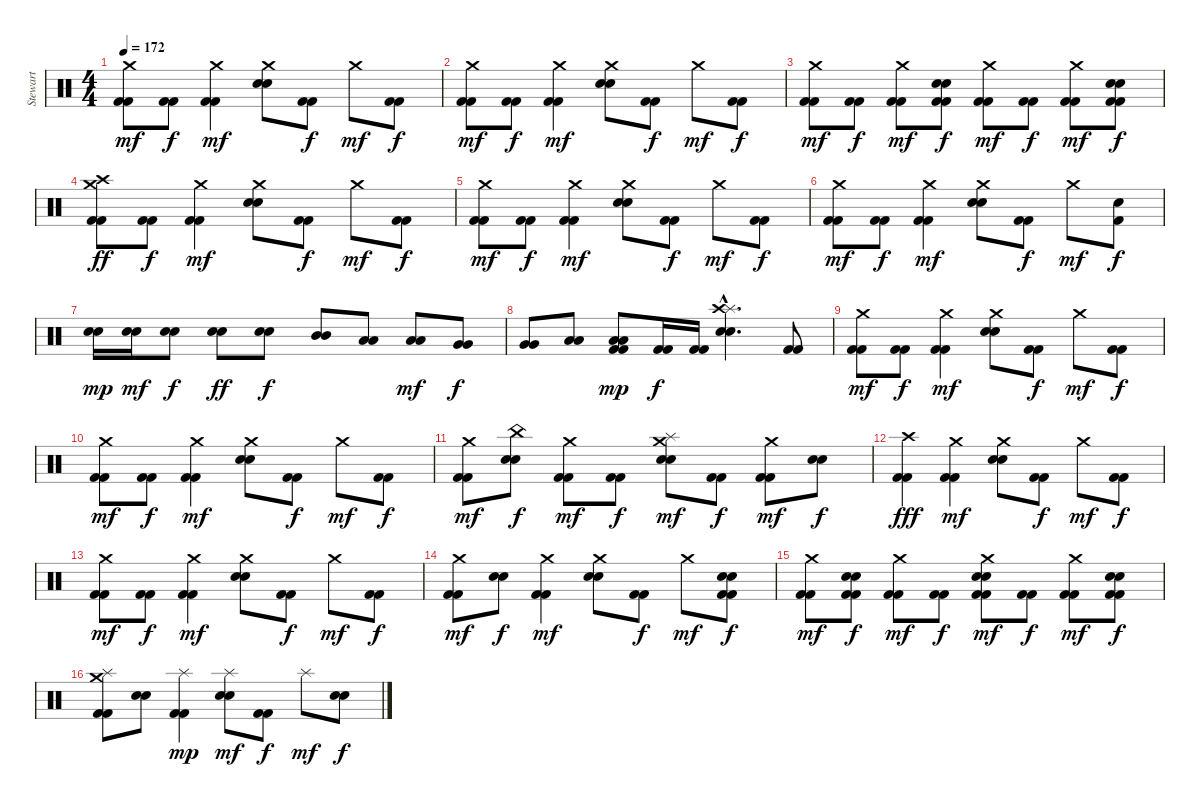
\track ("Stewart" "Stewart") {instrument percussion}
\staff {score}
\articulation defaults
\ts (4 4)
\tempo 172
\clef neutral
\ks c
("Crash medium (hit)" "Kick (hit) 2" "Kick (hit) 2").8{dy mf} ("Kick (hit) 2" "Kick (hit) 2").8{dy f} ("Crash medium (hit)" "Kick (hit) 2" "Kick (hit) 2").4{dy mf} ("Crash medium (hit)" "Electric Snare (hit)" "Electric Snare (hit)").8 ("Kick (hit) 2" "Kick (hit) 2").8{dy f} "Crash medium (hit)".8{dy mf} ("Kick (hit) 2" "Kick (hit) 2").8{dy f} |
("Crash medium (hit)" "Kick (hit) 2" "Kick (hit) 2").8{dy mf} ("Kick (hit) 2" "Kick (hit) 2").8{dy f} ("Crash medium (hit)" "Kick (hit) 2" "Kick (hit) 2").4{dy mf} ("Crash medium (hit)" "Electric Snare (hit)" "Electric Snare (hit)").8 ("Kick (hit) 2" "Kick (hit) 2").8{dy f} "Crash medium (hit)".8{dy mf} ("Kick (hit) 2" "Kick (hit) 2").8{dy f} |
("Crash medium (hit)" "Kick (hit) 2" "Kick (hit) 2").8{dy mf} ("Kick (hit) 2" "Kick (hit) 2").8{dy f} ("Crash medium (hit)" "Kick (hit) 2" "Kick (hit) 2").8{dy mf} ("Electric Snare (hit)" "Electric Snare (hit)" "Kick (hit) 2" "Kick (hit) 2").8{dy f} ("Crash medium (hit)" "Kick (hit) 2" "Kick (hit) 2").8{dy mf} ("Kick (hit) 2" "Kick (hit) 2").8{dy f} ("Crash medium (hit)" "Kick (hit) 2" "Kick (hit) 2").8{dy mf} ("Electric Snare (hit)" "Electric Snare (hit)" "Kick (hit) 2" "Kick (hit) 2").8{dy f} |
("Crash medium (hit)" "Crash high (hit)" "Kick (hit) 2" "Kick (hit) 2").8{dy ff} ("Kick (hit) 2" "Kick (hit) 2").8{dy f} ("Crash medium (hit)" "Kick (hit) 2" "Kick (hit) 2").4{dy mf} ("Crash medium (hit)" "Electric Snare (hit)" "Electric Snare (hit)").8 ("Kick (hit) 2" "Kick (hit) 2").8{dy f} "Crash medium (hit)".8{dy mf} ("Kick (hit) 2" "Kick (hit) 2").8{dy f} |
("Crash medium (hit)" "Kick (hit) 2" "Kick (hit) 2").8{dy mf} ("Kick (hit) 2" "Kick (hit) 2").8{dy f} ("Crash medium (hit)" "Kick (hit) 2" "Kick (hit) 2").4{dy mf} ("Crash medium (hit)" "Electric Snare (hit)" "Electric Snare (hit)").8 ("Kick (hit) 2" "Kick (hit) 2").8{dy f} "Crash medium (hit)".8{dy mf} ("Kick (hit) 2" "Kick (hit) 2").8{dy f} |
("Crash medium (hit)" "Kick (hit) 2" "Kick (hit) 2").8{dy mf} ("Kick (hit) 2" "Kick (hit) 2").8{dy f} ("Crash medium (hit)" "Kick (hit) 2" "Kick (hit) 2").4{dy mf} ("Crash medium (hit)" "Electric Snare (hit)" "Electric Snare (hit)").8 ("Kick (hit) 2" "Kick (hit) 2").8{dy f} "Crash medium (hit)".8{dy mf} ("Electric Snare (hit)" "Kick (hit) 2").8{dy f} |
("Electric Snare (hit)" "Electric Snare (hit)").16{dy mp} ("Electric Snare (hit)" "Electric Snare (hit)").16{dy mf} ("Electric Snare (hit)" "Electric Snare (hit)").8{dy f} ("Electric Snare (hit)" "Electric Snare (hit)").8{dy ff} ("Electric Snare (hit)" "Electric Snare (hit)").8{dy f} ("Mid Tom (hit)" "Mid Tom (hit)").8 ("Low Tom (hit)" "Low Tom (hit)").8 ("Low Tom (hit)" "Low Tom (hit)").8{dy mf} ("Very Low Tom (hit)" "Very Low Tom (hit)").8{dy f} |
("Very Low Tom (hit)" "Very Low Tom (hit)").8 ("Low Floor Tom (hit)" "Low Floor Tom (hit)").8 ("Low Floor Tom (hit)" "Low Floor Tom (hit)" "Kick (hit) 2" "Kick (hit) 2").8{dy mp} ("Kick (hit) 2" "Kick (hit) 2").16{dy f} ("Kick (hit) 2" "Kick (hit) 2").16 ("Splash (hit)"{hac} "Crash high (hit)"{hac} "Electric Snare (hit)"{hac} "Electric Snare (hit)"{hac}).4{d} ("Kick (hit) 2" "Kick (hit) 2").8 |
("Crash medium (hit)" "Kick (hit) 2" "Kick (hit) 2").8{dy mf} ("Kick (hit) 2" "Kick (hit) 2").8{dy f} ("Crash medium (hit)" "Kick (hit) 2" "Kick (hit) 2").4{dy mf} ("Crash medium (hit)" "Electric Snare (hit)" "Electric Snare (hit)").8 ("Kick (hit) 2" "Kick (hit) 2").8{dy f} "Crash medium (hit)".8{dy mf} ("Kick (hit) 2" "Kick (hit) 2").8{dy f} |
("Crash medium (hit)" "Kick (hit) 2" "Kick (hit) 2").8{dy mf} ("Kick (hit) 2" "Kick (hit) 2").8{dy f} ("Crash medium (hit)" "Kick (hit) 2" "Kick (hit) 2").4{dy mf} ("Crash medium (hit)" "Electric Snare (hit)" "Electric Snare (hit)").8 ("Kick (hit) 2" "Kick (hit) 2").8{dy f} "Crash medium (hit)".8{dy mf} ("Kick (hit) 2" "Kick (hit) 2").8{dy f} |
("Crash medium (hit)" "Kick (hit) 2" "Kick (hit) 2").8{dy mf} ("China (hit)" "Electric Snare (hit)" "Electric Snare (hit)").8{dy f} ("Crash medium (hit)" "Kick (hit) 2" "Kick (hit) 2").8{dy mf} ("Kick (hit) 2" "Kick (hit) 2").8{dy f} ("Crash medium (hit)" "Splash (hit)" "Electric Snare (hit)" "Electric Snare (hit)").8{dy mf} ("Kick (hit) 2" "Kick (hit) 2").8{dy f} ("Crash medium (hit)" "Kick (hit) 2" "Kick (hit) 2").8{dy mf} ("Electric Snare (hit)" "Electric Snare (hit)").8{dy f} |
("Crash high (hit)" "Kick (hit) 2" "Kick (hit) 2").4{dy fff} ("Crash medium (hit)" "Kick (hit) 2" "Kick (hit) 2").4{dy mf} ("Crash medium (hit)" "Electric Snare (hit)" "Electric Snare (hit)").8 ("Kick (hit) 2" "Kick (hit) 2").8{dy f} "Crash medium (hit)".8{dy mf} ("Kick (hit) 2" "Kick (hit) 2").8{dy f} |
("Crash medium (hit)" "Kick (hit) 2" "Kick (hit) 2").8{dy mf} ("Kick (hit) 2" "Kick (hit) 2").8{dy f} ("Crash medium (hit)" "Kick (hit) 2" "Kick (hit) 2").4{dy mf} ("Crash medium (hit)" "Electric Snare (hit)" "Electric Snare (hit)").8 ("Kick (hit) 2" "Kick (hit) 2").8{dy f} "Crash medium (hit)".8{dy mf} ("Kick (hit) 2" "Kick (hit) 2").8{dy f} |
("Crash medium (hit)" "Kick (hit) 2" "Kick (hit) 2").8{dy mf} ("Electric Snare (hit)" "Electric Snare (hit)").8{dy f} ("Crash medium (hit)" "Kick (hit) 2" "Kick (hit) 2").4{dy mf} ("Crash medium (hit)" "Electric Snare (hit)" "Electric Snare (hit)").8 ("Kick (hit) 2" "Kick (hit) 2").8{dy f} "Crash medium (hit)".8{dy mf} ("Electric Snare (hit)" "Electric Snare (hit)" "Kick (hit) 2" "Kick (hit) 2").8{dy f} |
("Crash medium (hit)" "Kick (hit) 2" "Kick (hit) 2").8{dy mf} ("Electric Snare (hit)" "Electric Snare (hit)" "Kick (hit) 2" "Kick (hit) 2").8{dy f} ("Crash medium (hit)" "Kick (hit) 2" "Kick (hit) 2").8{dy mf} ("Kick (hit) 2" "Kick (hit) 2").8{dy f} ("Crash medium (hit)" "Electric Snare (hit)" "Electric Snare (hit)" "Kick (hit) 2" "Kick (hit) 2").8{dy mf} ("Kick (hit) 2" "Kick (hit) 2").8{dy f} ("Crash medium (hit)" "Kick (hit) 2" "Kick (hit) 2").8{dy mf} ("Electric Snare (hit)" "Electric Snare (hit)" "Kick (hit) 2" "Kick (hit) 2").8{dy f} |
("Crash medium (hit)" "Splash (hit)" "Kick (hit) 2" "Kick (hit) 2").8 ("Electric Snare (hit)" "Electric Snare (hit)").8 ("Splash (hit)" "Kick (hit) 2" "Kick (hit) 2").4{dy mp} ("Splash (hit)" "Electric Snare (hit)" "Electric Snare (hit)").8{dy mf} ("Kick (hit) 2" "Kick (hit) 2").8{dy f} "Splash (hit)".8{dy mf} ("Electric Snare (hit)" "Electric Snare (hit)").8{dy f}
